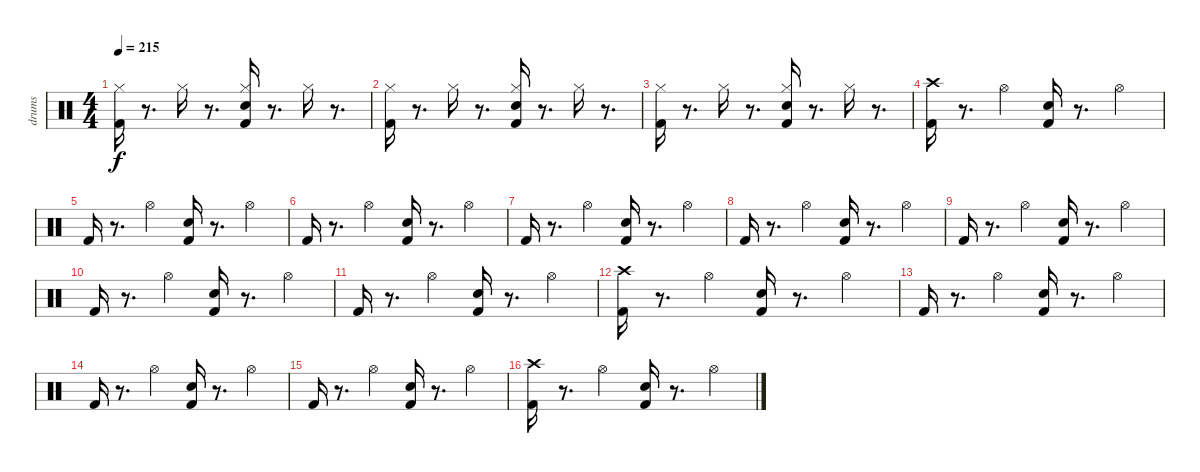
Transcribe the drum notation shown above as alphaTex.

\track ("drums" "drums") {instrument percussion}
\staff {score}
\articulation defaults
\ts (4 4)
\tempo 215
\clef neutral
\ks c
("Kick (hit) 2" "Hi-Hat (closed)").16{dy f} r.8{d} "Hi-Hat (closed)".16 r.8{d} ("Electric Snare (hit)" "Kick (hit) 2" "Hi-Hat (closed)").16 r.8{d} "Hi-Hat (closed)".16 r.8{d} |
("Kick (hit) 2" "Hi-Hat (closed)").16 r.8{d} "Hi-Hat (closed)".16 r.8{d} ("Electric Snare (hit)" "Kick (hit) 2" "Hi-Hat (closed)").16 r.8{d} "Hi-Hat (closed)".16 r.8{d} |
("Kick (hit) 2" "Hi-Hat (closed)").16 r.8{d} "Hi-Hat (closed)".16 r.8{d} ("Electric Snare (hit)" "Kick (hit) 2" "Hi-Hat (closed)").16 r.8{d} "Hi-Hat (closed)".16 r.8{d} |
("Crash high (hit)" "Kick (hit) 2").16 r.8{d} "Hi-Hat (open)".4 ("Electric Snare (hit)" "Kick (hit) 2").16 r.8{d} "Hi-Hat (open)".4 |
"Kick (hit) 2".16 r.8{d} "Hi-Hat (open)".4 ("Electric Snare (hit)" "Kick (hit) 2").16 r.8{d} "Hi-Hat (open)".4 |
"Kick (hit) 2".16 r.8{d} "Hi-Hat (open)".4 ("Electric Snare (hit)" "Kick (hit) 2").16 r.8{d} "Hi-Hat (open)".4 |
"Kick (hit) 2".16 r.8{d} "Hi-Hat (open)".4 ("Electric Snare (hit)" "Kick (hit) 2").16 r.8{d} "Hi-Hat (open)".4 |
"Kick (hit) 2".16 r.8{d} "Hi-Hat (open)".4 ("Electric Snare (hit)" "Kick (hit) 2").16 r.8{d} "Hi-Hat (open)".4 |
"Kick (hit) 2".16 r.8{d} "Hi-Hat (open)".4 ("Electric Snare (hit)" "Kick (hit) 2").16 r.8{d} "Hi-Hat (open)".4 |
"Kick (hit) 2".16 r.8{d} "Hi-Hat (open)".4 ("Electric Snare (hit)" "Kick (hit) 2").16 r.8{d} "Hi-Hat (open)".4 |
"Kick (hit) 2".16 r.8{d} "Hi-Hat (open)".4 ("Electric Snare (hit)" "Kick (hit) 2").16 r.8{d} "Hi-Hat (open)".4 |
("Crash high (hit)" "Kick (hit) 2").16 r.8{d} "Hi-Hat (open)".4 ("Electric Snare (hit)" "Kick (hit) 2").16 r.8{d} "Hi-Hat (open)".4 |
"Kick (hit) 2".16 r.8{d} "Hi-Hat (open)".4 ("Electric Snare (hit)" "Kick (hit) 2").16 r.8{d} "Hi-Hat (open)".4 |
"Kick (hit) 2".16 r.8{d} "Hi-Hat (open)".4 ("Electric Snare (hit)" "Kick (hit) 2").16 r.8{d} "Hi-Hat (open)".4 |
"Kick (hit) 2".16 r.8{d} "Hi-Hat (open)".4 ("Electric Snare (hit)" "Kick (hit) 2").16 r.8{d} "Hi-Hat (open)".4 |
("Crash high (hit)" "Kick (hit) 2").16 r.8{d} "Hi-Hat (open)".4 ("Electric Snare (hit)" "Kick (hit) 2").16 r.8{d} "Hi-Hat (open)".4
